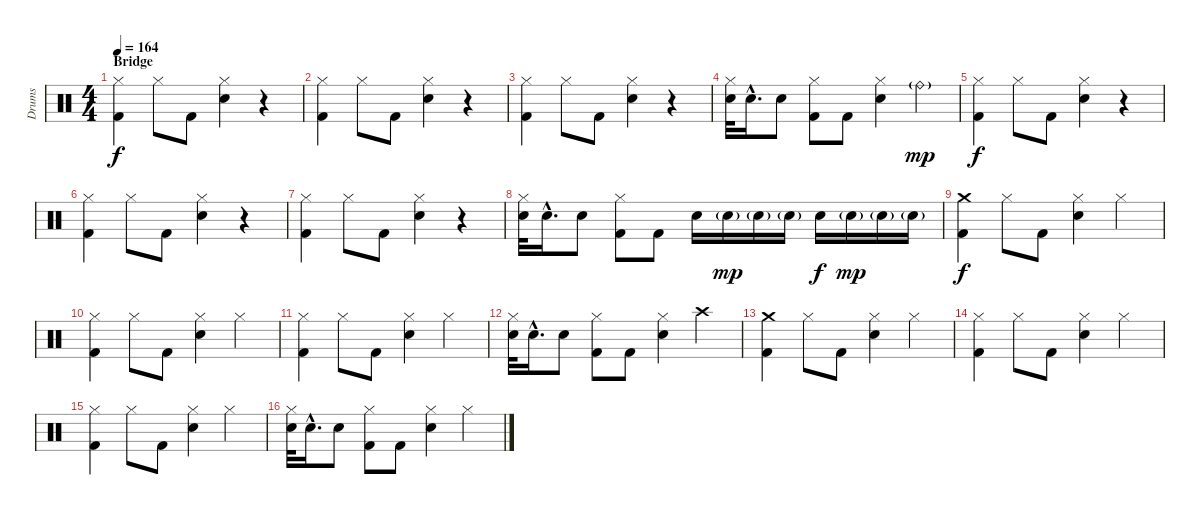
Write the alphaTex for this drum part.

\track ("Drums" "Drums") {instrument percussion}
\staff {score}
\articulation defaults
\ts (4 4)
\section ("" "Bridge")
\tempo 164
\clef neutral
\ks c
("Hi-Hat (closed)" "Kick (hit) 2").4{dy f} "Hi-Hat (closed)".8 "Kick (hit) 2".8 ("Hi-Hat (closed)" "Electric Snare (hit)").4 r.4 |
("Hi-Hat (closed)" "Kick (hit) 2").4 "Hi-Hat (closed)".8 "Kick (hit) 2".8 ("Hi-Hat (closed)" "Electric Snare (hit)").4 r.4 |
("Hi-Hat (closed)" "Kick (hit) 2").4 "Hi-Hat (closed)".8 "Kick (hit) 2".8 ("Hi-Hat (closed)" "Electric Snare (hit)").4 r.4 |
("Hi-Hat (closed)" "Electric Snare (hit)").32 "Electric Snare (hit)"{hac}.16{d} "Electric Snare (hit)".8 ("Hi-Hat (closed)" "Kick (hit) 2").8 "Kick (hit) 2".8 ("Hi-Hat (closed)" "Electric Snare (hit)").4 "Ride (bell)"{g}.4{dy mp} |
("Hi-Hat (closed)" "Kick (hit) 2").4{dy f} "Hi-Hat (closed)".8 "Kick (hit) 2".8 ("Hi-Hat (closed)" "Electric Snare (hit)").4 r.4 |
("Hi-Hat (closed)" "Kick (hit) 2").4 "Hi-Hat (closed)".8 "Kick (hit) 2".8 ("Hi-Hat (closed)" "Electric Snare (hit)").4 r.4 |
("Hi-Hat (closed)" "Kick (hit) 2").4 "Hi-Hat (closed)".8 "Kick (hit) 2".8 ("Hi-Hat (closed)" "Electric Snare (hit)").4 r.4 |
("Hi-Hat (closed)" "Electric Snare (hit)").32 "Electric Snare (hit)"{hac}.16{d} "Electric Snare (hit)".8 ("Hi-Hat (closed)" "Kick (hit) 2").8 "Kick (hit) 2".8 "Electric Snare (hit)".16 "Electric Snare (hit)"{g}.16{dy mp} "Electric Snare (hit)"{g}.16 "Electric Snare (hit)"{g}.16 "Electric Snare (hit)".16{dy f} "Electric Snare (hit)"{g}.16{dy mp} "Electric Snare (hit)"{g}.16 "Electric Snare (hit)"{g}.16 |
("Crash medium (hit)" "Kick (hit) 2").4{dy f} "Hi-Hat (closed)".8 "Kick (hit) 2".8 ("Hi-Hat (closed)" "Electric Snare (hit)").4 "Hi-Hat (closed)".4 |
("Hi-Hat (closed)" "Kick (hit) 2").4 "Hi-Hat (closed)".8 "Kick (hit) 2".8 ("Hi-Hat (closed)" "Electric Snare (hit)").4 "Hi-Hat (closed)".4 |
("Hi-Hat (closed)" "Kick (hit) 2").4 "Hi-Hat (closed)".8 "Kick (hit) 2".8 ("Hi-Hat (closed)" "Electric Snare (hit)").4 "Hi-Hat (closed)".4 |
("Hi-Hat (closed)" "Electric Snare (hit)").32 "Electric Snare (hit)"{hac}.16{d} "Electric Snare (hit)".8 ("Hi-Hat (closed)" "Kick (hit) 2").8 "Kick (hit) 2".8 ("Hi-Hat (closed)" "Electric Snare (hit)").4 "Crash high (hit)".4 |
("Crash medium (hit)" "Kick (hit) 2").4 "Hi-Hat (closed)".8 "Kick (hit) 2".8 ("Hi-Hat (closed)" "Electric Snare (hit)").4 "Hi-Hat (closed)".4 |
("Hi-Hat (closed)" "Kick (hit) 2").4 "Hi-Hat (closed)".8 "Kick (hit) 2".8 ("Hi-Hat (closed)" "Electric Snare (hit)").4 "Hi-Hat (closed)".4 |
("Hi-Hat (closed)" "Kick (hit) 2").4 "Hi-Hat (closed)".8 "Kick (hit) 2".8 ("Hi-Hat (closed)" "Electric Snare (hit)").4 "Hi-Hat (closed)".4 |
("Hi-Hat (closed)" "Electric Snare (hit)").32 "Electric Snare (hit)"{hac}.16{d} "Electric Snare (hit)".8 ("Hi-Hat (closed)" "Kick (hit) 2").8 "Kick (hit) 2".8 ("Hi-Hat (closed)" "Electric Snare (hit)").4 "Hi-Hat (closed)".4
